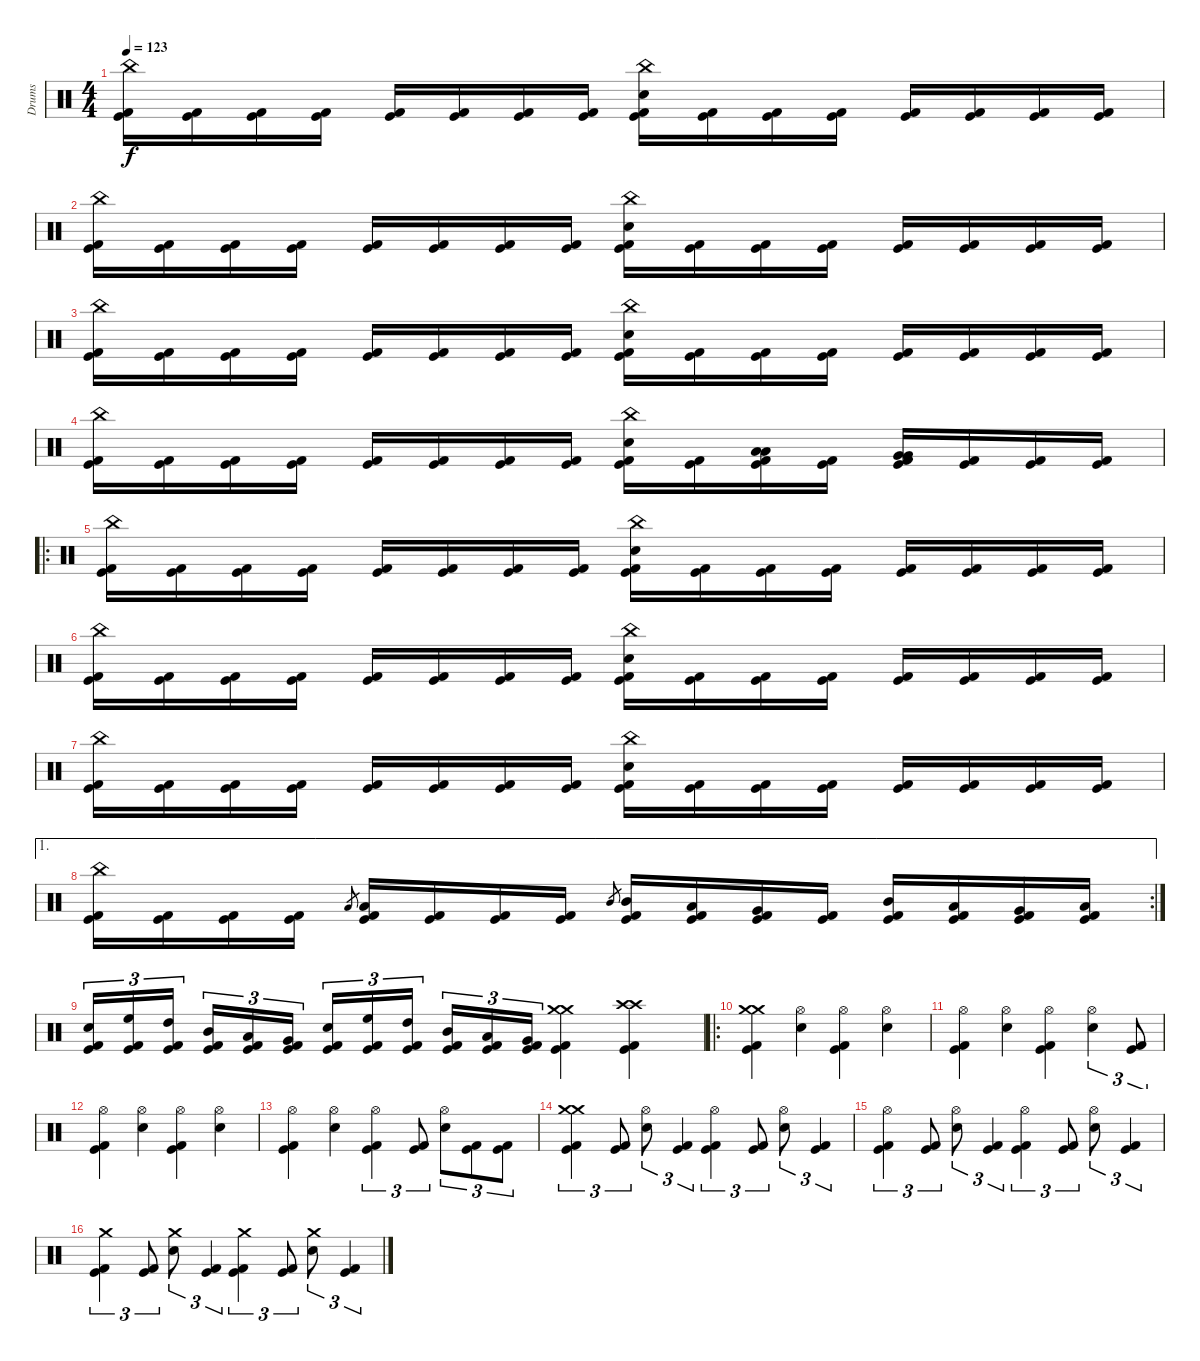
\track ("Drums" "Drums") {instrument percussion}
\staff {score}
\articulation defaults
\ts (4 4)
\tempo 123
\clef neutral
\ks c
("China (hit)" "Kick (hit)" "Kick (hit) 2").16{dy f} ("Kick (hit)" "Kick (hit) 2").16 ("Kick (hit)" "Kick (hit) 2").16 ("Kick (hit)" "Kick (hit) 2").16 ("Kick (hit)" "Kick (hit) 2").16 ("Kick (hit)" "Kick (hit) 2").16 ("Kick (hit)" "Kick (hit) 2").16 ("Kick (hit)" "Kick (hit) 2").16 ("China (hit)" "Electric Snare (hit)" "Kick (hit)" "Kick (hit) 2").16 ("Kick (hit)" "Kick (hit) 2").16 ("Kick (hit)" "Kick (hit) 2").16 ("Kick (hit)" "Kick (hit) 2").16 ("Kick (hit)" "Kick (hit) 2").16 ("Kick (hit)" "Kick (hit) 2").16 ("Kick (hit)" "Kick (hit) 2").16 ("Kick (hit)" "Kick (hit) 2").16 |
("China (hit)" "Kick (hit)" "Kick (hit) 2").16 ("Kick (hit)" "Kick (hit) 2").16 ("Kick (hit)" "Kick (hit) 2").16 ("Kick (hit)" "Kick (hit) 2").16 ("Kick (hit)" "Kick (hit) 2").16 ("Kick (hit)" "Kick (hit) 2").16 ("Kick (hit)" "Kick (hit) 2").16 ("Kick (hit)" "Kick (hit) 2").16 ("China (hit)" "Electric Snare (hit)" "Kick (hit)" "Kick (hit) 2").16 ("Kick (hit)" "Kick (hit) 2").16 ("Kick (hit)" "Kick (hit) 2").16 ("Kick (hit)" "Kick (hit) 2").16 ("Kick (hit)" "Kick (hit) 2").16 ("Kick (hit)" "Kick (hit) 2").16 ("Kick (hit)" "Kick (hit) 2").16 ("Kick (hit)" "Kick (hit) 2").16 |
("China (hit)" "Kick (hit)" "Kick (hit) 2").16 ("Kick (hit)" "Kick (hit) 2").16 ("Kick (hit)" "Kick (hit) 2").16 ("Kick (hit)" "Kick (hit) 2").16 ("Kick (hit)" "Kick (hit) 2").16 ("Kick (hit)" "Kick (hit) 2").16 ("Kick (hit)" "Kick (hit) 2").16 ("Kick (hit)" "Kick (hit) 2").16 ("China (hit)" "Electric Snare (hit)" "Kick (hit)" "Kick (hit) 2").16 ("Kick (hit)" "Kick (hit) 2").16 ("Kick (hit)" "Kick (hit) 2").16 ("Kick (hit)" "Kick (hit) 2").16 ("Kick (hit)" "Kick (hit) 2").16 ("Kick (hit)" "Kick (hit) 2").16 ("Kick (hit)" "Kick (hit) 2").16 ("Kick (hit)" "Kick (hit) 2").16 |
("China (hit)" "Kick (hit)" "Kick (hit) 2").16 ("Kick (hit)" "Kick (hit) 2").16 ("Kick (hit)" "Kick (hit) 2").16 ("Kick (hit)" "Kick (hit) 2").16 ("Kick (hit)" "Kick (hit) 2").16 ("Kick (hit)" "Kick (hit) 2").16 ("Kick (hit)" "Kick (hit) 2").16 ("Kick (hit)" "Kick (hit) 2").16 ("China (hit)" "Electric Snare (hit)" "Kick (hit)" "Kick (hit) 2").16 ("Kick (hit)" "Kick (hit) 2").16 ("Low Tom (hit)" "Low Tom (hit)" "Kick (hit)" "Kick (hit) 2").16 ("Kick (hit)" "Kick (hit) 2").16 ("Very Low Tom (hit)" "Very Low Tom (hit)" "Kick (hit)" "Kick (hit) 2").16 ("Kick (hit)" "Kick (hit) 2").16 ("Kick (hit)" "Kick (hit) 2").16 ("Kick (hit)" "Kick (hit) 2").16 |
\ro
("China (hit)" "Kick (hit)" "Kick (hit) 2").16 ("Kick (hit)" "Kick (hit) 2").16 ("Kick (hit)" "Kick (hit) 2").16 ("Kick (hit)" "Kick (hit) 2").16 ("Kick (hit)" "Kick (hit) 2").16 ("Kick (hit)" "Kick (hit) 2").16 ("Kick (hit)" "Kick (hit) 2").16 ("Kick (hit)" "Kick (hit) 2").16 ("China (hit)" "Electric Snare (hit)" "Kick (hit)" "Kick (hit) 2").16 ("Kick (hit)" "Kick (hit) 2").16 ("Kick (hit)" "Kick (hit) 2").16 ("Kick (hit)" "Kick (hit) 2").16 ("Kick (hit)" "Kick (hit) 2").16 ("Kick (hit)" "Kick (hit) 2").16 ("Kick (hit)" "Kick (hit) 2").16 ("Kick (hit)" "Kick (hit) 2").16 |
("China (hit)" "Kick (hit)" "Kick (hit) 2").16 ("Kick (hit)" "Kick (hit) 2").16 ("Kick (hit)" "Kick (hit) 2").16 ("Kick (hit)" "Kick (hit) 2").16 ("Kick (hit)" "Kick (hit) 2").16 ("Kick (hit)" "Kick (hit) 2").16 ("Kick (hit)" "Kick (hit) 2").16 ("Kick (hit)" "Kick (hit) 2").16 ("China (hit)" "Electric Snare (hit)" "Kick (hit)" "Kick (hit) 2").16 ("Kick (hit)" "Kick (hit) 2").16 ("Kick (hit)" "Kick (hit) 2").16 ("Kick (hit)" "Kick (hit) 2").16 ("Kick (hit)" "Kick (hit) 2").16 ("Kick (hit)" "Kick (hit) 2").16 ("Kick (hit)" "Kick (hit) 2").16 ("Kick (hit)" "Kick (hit) 2").16 |
("China (hit)" "Kick (hit)" "Kick (hit) 2").16 ("Kick (hit)" "Kick (hit) 2").16 ("Kick (hit)" "Kick (hit) 2").16 ("Kick (hit)" "Kick (hit) 2").16 ("Kick (hit)" "Kick (hit) 2").16 ("Kick (hit)" "Kick (hit) 2").16 ("Kick (hit)" "Kick (hit) 2").16 ("Kick (hit)" "Kick (hit) 2").16 ("China (hit)" "Electric Snare (hit)" "Kick (hit)" "Kick (hit) 2").16 ("Kick (hit)" "Kick (hit) 2").16 ("Kick (hit)" "Kick (hit) 2").16 ("Kick (hit)" "Kick (hit) 2").16 ("Kick (hit)" "Kick (hit) 2").16 ("Kick (hit)" "Kick (hit) 2").16 ("Kick (hit)" "Kick (hit) 2").16 ("Kick (hit)" "Kick (hit) 2").16 |
\ae 1
\rc 2
("China (hit)" "Kick (hit)" "Kick (hit) 2").16 ("Kick (hit)" "Kick (hit) 2").16 ("Kick (hit)" "Kick (hit) 2").16 ("Kick (hit)" "Kick (hit) 2").16 "Low Tom (hit)".8{gr} ("Low Tom (hit)" "Kick (hit)" "Kick (hit) 2").16 ("Kick (hit)" "Kick (hit) 2").16 ("Kick (hit)" "Kick (hit) 2").16 ("Kick (hit)" "Kick (hit) 2").16 "Mid Tom (hit)".8{gr} ("Mid Tom (hit)" "Kick (hit)" "Kick (hit) 2").16 ("Low Tom (hit)" "Kick (hit)" "Kick (hit) 2").16 ("Very Low Tom (hit)" "Kick (hit)" "Kick (hit) 2").16 ("Kick (hit)" "Kick (hit) 2").16 ("Mid Tom (hit)" "Kick (hit)" "Kick (hit) 2").16 ("Low Tom (hit)" "Kick (hit)" "Kick (hit) 2").16 ("Very Low Tom (hit)" "Kick (hit)" "Kick (hit) 2").16 ("Low Floor Tom (hit)" "Kick (hit)" "Kick (hit) 2").16 |
("Electric Snare (hit)" "Kick (hit)" "Kick (hit) 2").16{tu (3 2)} ("High Floor Tom (hit)" "Kick (hit)" "Kick (hit) 2").16{tu (3 2)} ("High Tom (hit)" "Kick (hit)" "Kick (hit) 2").16{tu (3 2)} ("Mid Tom (hit)" "Kick (hit)" "Kick (hit) 2").16{tu (3 2)} ("Low Tom (hit)" "Kick (hit)" "Kick (hit) 2").16{tu (3 2)} ("Very Low Tom (hit)" "Kick (hit)" "Kick (hit) 2").16{tu (3 2)} ("Electric Snare (hit)" "Kick (hit)" "Kick (hit) 2").16{tu (3 2)} ("High Floor Tom (hit)" "Kick (hit)" "Kick (hit) 2").16{tu (3 2)} ("High Tom (hit)" "Kick (hit)" "Kick (hit) 2").16{tu (3 2)} ("Mid Tom (hit)" "Kick (hit)" "Kick (hit) 2").16{tu (3 2)} ("Low Tom (hit)" "Kick (hit)" "Kick (hit) 2").16{tu (3 2)} ("Very Low Tom (hit)" "Kick (hit)" "Kick (hit) 2").16{tu (3 2)} ("Crash medium (hit)" "Crash medium (hit)" "Kick (hit)" "Kick (hit) 2").4 ("Crash high (hit)" "Crash high (hit)" "Kick (hit)" "Kick (hit) 2").4 |
\ro
("Crash medium (hit)" "Crash medium (hit)" "Kick (hit)" "Kick (hit) 2").4 ("Hi-Hat (open)" "Electric Snare (hit)").4 ("Hi-Hat (open)" "Kick (hit)" "Kick (hit) 2").4 ("Hi-Hat (open)" "Electric Snare (hit)").4 |
("Hi-Hat (open)" "Kick (hit)" "Kick (hit) 2").4 ("Hi-Hat (open)" "Electric Snare (hit)").4 ("Hi-Hat (open)" "Kick (hit)" "Kick (hit) 2").4 ("Hi-Hat (open)" "Electric Snare (hit)").4{tu (3 2)} ("Kick (hit)" "Kick (hit) 2").8{tu (3 2)} |
("Hi-Hat (open)" "Kick (hit)" "Kick (hit) 2").4 ("Hi-Hat (open)" "Electric Snare (hit)").4 ("Hi-Hat (open)" "Kick (hit)" "Kick (hit) 2").4 ("Hi-Hat (open)" "Electric Snare (hit)").4 |
("Hi-Hat (open)" "Kick (hit)" "Kick (hit) 2").4 ("Hi-Hat (open)" "Electric Snare (hit)").4 ("Hi-Hat (open)" "Kick (hit)" "Kick (hit) 2").4{tu (3 2)} ("Kick (hit)" "Kick (hit) 2").8{tu (3 2)} ("Hi-Hat (open)" "Electric Snare (hit)").8{tu (3 2)} ("Kick (hit)" "Kick (hit) 2").8{tu (3 2)} ("Kick (hit)" "Kick (hit) 2").8{tu (3 2)} |
("Crash medium (hit)" "Crash medium (hit)" "Kick (hit)" "Kick (hit) 2").4{tu (3 2)} ("Kick (hit)" "Kick (hit) 2").8{tu (3 2)} ("Hi-Hat (open)" "Electric Snare (hit)").8{tu (3 2)} ("Kick (hit)" "Kick (hit) 2").4{tu (3 2)} ("Hi-Hat (open)" "Kick (hit)" "Kick (hit) 2").4{tu (3 2)} ("Kick (hit)" "Kick (hit) 2").8{tu (3 2)} ("Hi-Hat (open)" "Electric Snare (hit)").8{tu (3 2)} ("Kick (hit)" "Kick (hit) 2").4{tu (3 2)} |
("Hi-Hat (open)" "Kick (hit)" "Kick (hit) 2").4{tu (3 2)} ("Kick (hit)" "Kick (hit) 2").8{tu (3 2)} ("Hi-Hat (open)" "Electric Snare (hit)").8{tu (3 2)} ("Kick (hit)" "Kick (hit) 2").4{tu (3 2)} ("Hi-Hat (open)" "Kick (hit)" "Kick (hit) 2").4{tu (3 2)} ("Kick (hit)" "Kick (hit) 2").8{tu (3 2)} ("Hi-Hat (open)" "Electric Snare (hit)").8{tu (3 2)} ("Kick (hit)" "Kick (hit) 2").4{tu (3 2)} |
("Crash medium (hit)" "Kick (hit)" "Kick (hit) 2").4{tu (3 2)} ("Kick (hit)" "Kick (hit) 2").8{tu (3 2)} ("Crash medium (hit)" "Electric Snare (hit)").8{tu (3 2)} ("Kick (hit)" "Kick (hit) 2").4{tu (3 2)} ("Crash medium (hit)" "Kick (hit)" "Kick (hit) 2").4{tu (3 2)} ("Kick (hit)" "Kick (hit) 2").8{tu (3 2)} ("Crash medium (hit)" "Electric Snare (hit)").8{tu (3 2)} ("Kick (hit)" "Kick (hit) 2").4{tu (3 2)}
